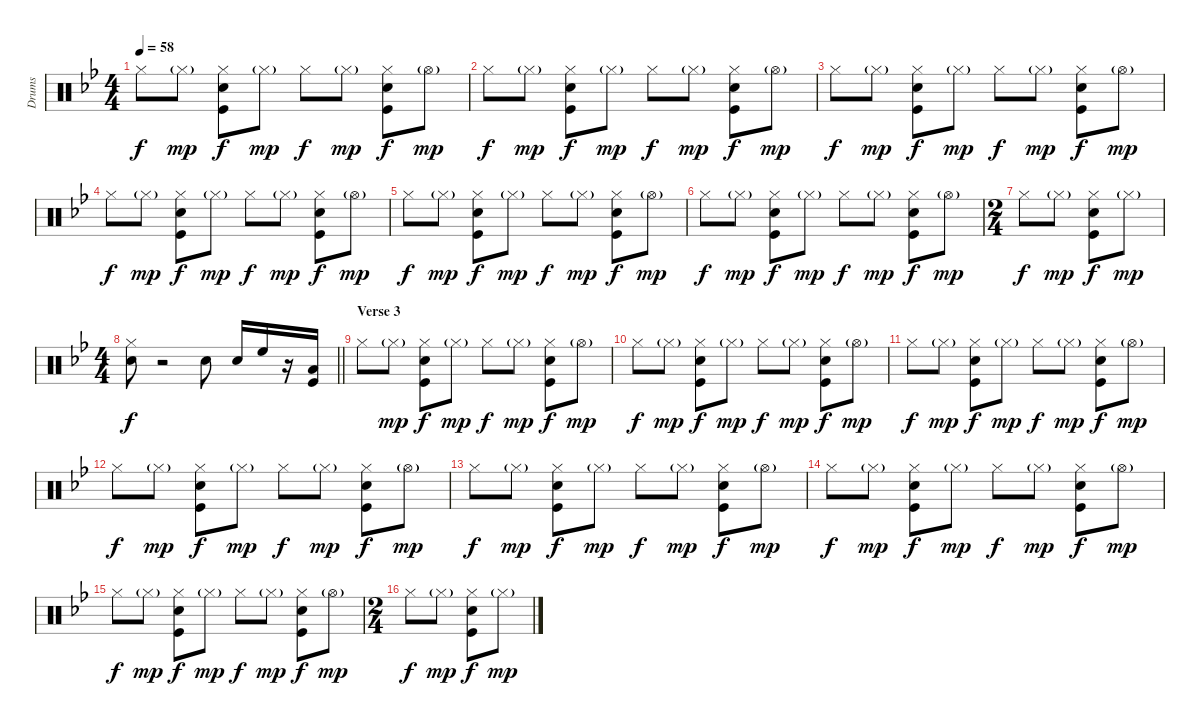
\track ("Drums" "Drums") {instrument percussion}
\staff {score}
\articulation defaults
\ts (4 4)
\tempo 58
\clef neutral
\ks bb "Hi-Hat (closed)".8{dy f} "Hi-Hat (closed)"{g}.8{dy mp}
("Hi-Hat (closed)" "Kick (hit)" "Snare (hit) 2").8{dy f} "Hi-Hat (closed)"{g}.8{dy mp} "Hi-Hat (closed)".8{dy f} "Hi-Hat (closed)"{g}.8{dy mp} ("Hi-Hat (closed)" "Kick (hit)" "Snare (hit) 2").8{dy f} "Hi-Hat (open)"{g}.8{dy mp} |
"Hi-Hat (closed)".8{dy f} "Hi-Hat (closed)"{g}.8{dy mp} ("Hi-Hat (closed)" "Kick (hit)" "Snare (hit) 2").8{dy f} "Hi-Hat (closed)"{g}.8{dy mp} "Hi-Hat (closed)".8{dy f} "Hi-Hat (closed)"{g}.8{dy mp} ("Hi-Hat (closed)" "Kick (hit)" "Snare (hit) 2").8{dy f} "Hi-Hat (open)"{g}.8{dy mp} |
"Hi-Hat (closed)".8{dy f} "Hi-Hat (closed)"{g}.8{dy mp} ("Hi-Hat (closed)" "Kick (hit)" "Snare (hit) 2").8{dy f} "Hi-Hat (closed)"{g}.8{dy mp} "Hi-Hat (closed)".8{dy f} "Hi-Hat (closed)"{g}.8{dy mp} ("Hi-Hat (closed)" "Kick (hit)" "Snare (hit) 2").8{dy f} "Hi-Hat (open)"{g}.8{dy mp} |
"Hi-Hat (closed)".8{dy f} "Hi-Hat (closed)"{g}.8{dy mp} ("Hi-Hat (closed)" "Kick (hit)" "Snare (hit) 2").8{dy f} "Hi-Hat (closed)"{g}.8{dy mp} "Hi-Hat (closed)".8{dy f} "Hi-Hat (closed)"{g}.8{dy mp} ("Hi-Hat (closed)" "Kick (hit)" "Snare (hit) 2").8{dy f} "Hi-Hat (open)"{g}.8{dy mp} |
"Hi-Hat (closed)".8{dy f} "Hi-Hat (closed)"{g}.8{dy mp} ("Hi-Hat (closed)" "Kick (hit)" "Snare (hit) 2").8{dy f} "Hi-Hat (closed)"{g}.8{dy mp} "Hi-Hat (closed)".8{dy f} "Hi-Hat (closed)"{g}.8{dy mp} ("Hi-Hat (closed)" "Kick (hit)" "Snare (hit) 2").8{dy f} "Hi-Hat (open)"{g}.8{dy mp} |
"Hi-Hat (closed)".8{dy f} "Hi-Hat (closed)"{g}.8{dy mp} ("Hi-Hat (closed)" "Kick (hit)" "Snare (hit) 2").8{dy f} "Hi-Hat (closed)"{g}.8{dy mp} "Hi-Hat (closed)".8{dy f} "Hi-Hat (closed)"{g}.8{dy mp} ("Hi-Hat (closed)" "Kick (hit)" "Snare (hit) 2").8{dy f} "Hi-Hat (open)"{g}.8{dy mp} |
\ts (2 4)
"Hi-Hat (closed)".8{dy f} "Hi-Hat (closed)"{g}.8{dy mp} ("Hi-Hat (closed)" "Kick (hit)" "Snare (hit) 2").8{dy f} "Hi-Hat (closed)"{g}.8{dy mp} |
\ts (4 4)
\barLineRight lightlight
("Hi-Hat (closed)" "Snare (hit) 2").8{dy f} r.2 "Snare (hit) 2".8 "Snare (hit) 2".16 "High Floor Tom (hit)".16 r.16 ("Kick (hit)" "Low Tom (hit)").16 |
\section ("" "Verse 3")
"Hi-Hat (closed)".8 "Hi-Hat (closed)"{g}.8{dy mp} ("Hi-Hat (closed)" "Kick (hit)" "Snare (hit) 2").8{dy f} "Hi-Hat (closed)"{g}.8{dy mp} "Hi-Hat (closed)".8{dy f} "Hi-Hat (closed)"{g}.8{dy mp} ("Hi-Hat (closed)" "Kick (hit)" "Snare (hit) 2").8{dy f} "Hi-Hat (open)"{g}.8{dy mp} |
"Hi-Hat (closed)".8{dy f} "Hi-Hat (closed)"{g}.8{dy mp} ("Hi-Hat (closed)" "Kick (hit)" "Snare (hit) 2").8{dy f} "Hi-Hat (closed)"{g}.8{dy mp} "Hi-Hat (closed)".8{dy f} "Hi-Hat (closed)"{g}.8{dy mp} ("Hi-Hat (closed)" "Kick (hit)" "Snare (hit) 2").8{dy f} "Hi-Hat (open)"{g}.8{dy mp} |
"Hi-Hat (closed)".8{dy f} "Hi-Hat (closed)"{g}.8{dy mp} ("Hi-Hat (closed)" "Kick (hit)" "Snare (hit) 2").8{dy f} "Hi-Hat (closed)"{g}.8{dy mp} "Hi-Hat (closed)".8{dy f} "Hi-Hat (closed)"{g}.8{dy mp} ("Hi-Hat (closed)" "Kick (hit)" "Snare (hit) 2").8{dy f} "Hi-Hat (open)"{g}.8{dy mp} |
"Hi-Hat (closed)".8{dy f} "Hi-Hat (closed)"{g}.8{dy mp} ("Hi-Hat (closed)" "Kick (hit)" "Snare (hit) 2").8{dy f} "Hi-Hat (closed)"{g}.8{dy mp} "Hi-Hat (closed)".8{dy f} "Hi-Hat (closed)"{g}.8{dy mp} ("Hi-Hat (closed)" "Kick (hit)" "Snare (hit) 2").8{dy f} "Hi-Hat (open)"{g}.8{dy mp} |
"Hi-Hat (closed)".8{dy f} "Hi-Hat (closed)"{g}.8{dy mp} ("Hi-Hat (closed)" "Kick (hit)" "Snare (hit) 2").8{dy f} "Hi-Hat (closed)"{g}.8{dy mp} "Hi-Hat (closed)".8{dy f} "Hi-Hat (closed)"{g}.8{dy mp} ("Hi-Hat (closed)" "Kick (hit)" "Snare (hit) 2").8{dy f} "Hi-Hat (open)"{g}.8{dy mp} |
"Hi-Hat (closed)".8{dy f} "Hi-Hat (closed)"{g}.8{dy mp} ("Hi-Hat (closed)" "Kick (hit)" "Snare (hit) 2").8{dy f} "Hi-Hat (closed)"{g}.8{dy mp} "Hi-Hat (closed)".8{dy f} "Hi-Hat (closed)"{g}.8{dy mp} ("Hi-Hat (closed)" "Kick (hit)" "Snare (hit) 2").8{dy f} "Hi-Hat (open)"{g}.8{dy mp} |
"Hi-Hat (closed)".8{dy f} "Hi-Hat (closed)"{g}.8{dy mp} ("Hi-Hat (closed)" "Kick (hit)" "Snare (hit) 2").8{dy f} "Hi-Hat (closed)"{g}.8{dy mp} "Hi-Hat (closed)".8{dy f} "Hi-Hat (closed)"{g}.8{dy mp} ("Hi-Hat (closed)" "Kick (hit)" "Snare (hit) 2").8{dy f} "Hi-Hat (open)"{g}.8{dy mp} |
\ts (2 4)
"Hi-Hat (closed)".8{dy f} "Hi-Hat (closed)"{g}.8{dy mp} ("Hi-Hat (closed)" "Kick (hit)" "Snare (hit) 2").8{dy f} "Hi-Hat (closed)"{g}.8{dy mp}
